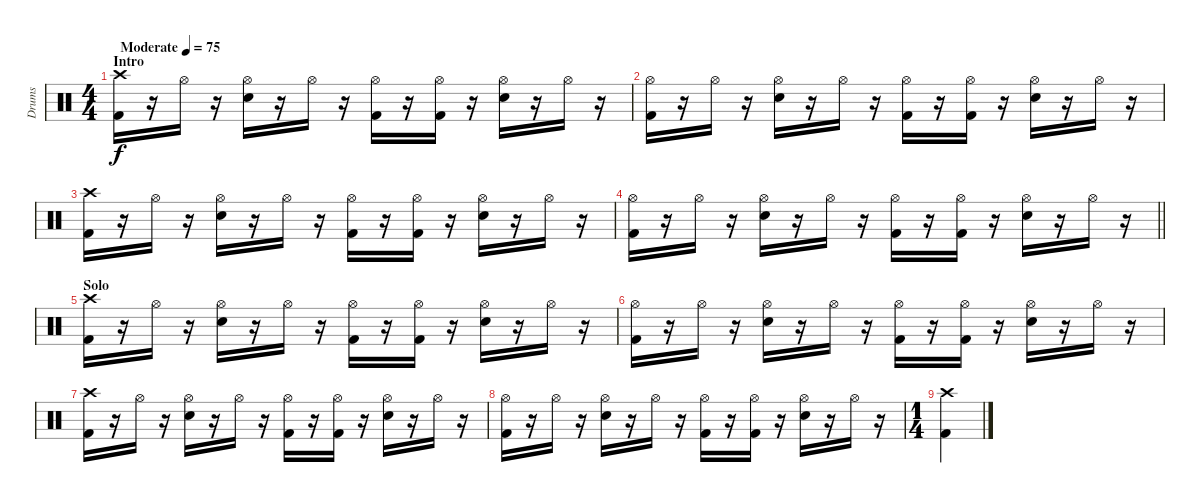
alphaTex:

\track ("Drums" "Drums") {instrument percussion}
\staff {score}
\articulation defaults
\ts (4 4)
\section ("" "Intro")
\tempo (75 "Moderate")
\clef neutral
\ks c
("Crash high (hit)" "Kick (hit) 2").16{dy f} r.16 "Hi-Hat (open)".16 r.16 ("Hi-Hat (open)" "Electric Snare (hit)").16 r.16 "Hi-Hat (open)".16 r.16 ("Hi-Hat (open)" "Kick (hit) 2").16 r.16 ("Hi-Hat (open)" "Kick (hit) 2").16 r.16 ("Hi-Hat (open)" "Electric Snare (hit)").16 r.16 "Hi-Hat (open)".16 r.16 |
("Hi-Hat (open)" "Kick (hit) 2").16 r.16 "Hi-Hat (open)".16 r.16 ("Hi-Hat (open)" "Electric Snare (hit)").16 r.16 "Hi-Hat (open)".16 r.16 ("Hi-Hat (open)" "Kick (hit) 2").16 r.16 ("Hi-Hat (open)" "Kick (hit) 2").16 r.16 ("Hi-Hat (open)" "Electric Snare (hit)").16 r.16 "Hi-Hat (open)".16 r.16 |
("Crash high (hit)" "Kick (hit) 2").16 r.16 "Hi-Hat (open)".16 r.16 ("Hi-Hat (open)" "Electric Snare (hit)").16 r.16 "Hi-Hat (open)".16 r.16 ("Hi-Hat (open)" "Kick (hit) 2").16 r.16 ("Hi-Hat (open)" "Kick (hit) 2").16 r.16 ("Hi-Hat (open)" "Electric Snare (hit)").16 r.16 "Hi-Hat (open)".16 r.16 |
\barLineRight lightlight
("Hi-Hat (open)" "Kick (hit) 2").16 r.16 "Hi-Hat (open)".16 r.16 ("Hi-Hat (open)" "Electric Snare (hit)").16 r.16 "Hi-Hat (open)".16 r.16 ("Hi-Hat (open)" "Kick (hit) 2").16 r.16 ("Hi-Hat (open)" "Kick (hit) 2").16 r.16 ("Hi-Hat (open)" "Electric Snare (hit)").16 r.16 "Hi-Hat (open)".16 r.16 |
\section ("" "Solo")
("Crash high (hit)" "Kick (hit) 2").16 r.16 "Hi-Hat (open)".16 r.16 ("Hi-Hat (open)" "Electric Snare (hit)").16 r.16 "Hi-Hat (open)".16 r.16 ("Hi-Hat (open)" "Kick (hit) 2").16 r.16 ("Hi-Hat (open)" "Kick (hit) 2").16 r.16 ("Hi-Hat (open)" "Electric Snare (hit)").16 r.16 "Hi-Hat (open)".16 r.16 |
("Hi-Hat (open)" "Kick (hit) 2").16 r.16 "Hi-Hat (open)".16 r.16 ("Hi-Hat (open)" "Electric Snare (hit)").16 r.16 "Hi-Hat (open)".16 r.16 ("Hi-Hat (open)" "Kick (hit) 2").16 r.16 ("Hi-Hat (open)" "Kick (hit) 2").16 r.16 ("Hi-Hat (open)" "Electric Snare (hit)").16 r.16 "Hi-Hat (open)".16 r.16 |
("Crash high (hit)" "Kick (hit) 2").16 r.16 "Hi-Hat (open)".16 r.16 ("Hi-Hat (open)" "Electric Snare (hit)").16 r.16 "Hi-Hat (open)".16 r.16 ("Hi-Hat (open)" "Kick (hit) 2").16 r.16 ("Hi-Hat (open)" "Kick (hit) 2").16 r.16 ("Hi-Hat (open)" "Electric Snare (hit)").16 r.16 "Hi-Hat (open)".16 r.16 |
("Hi-Hat (open)" "Kick (hit) 2").16 r.16 "Hi-Hat (open)".16 r.16 ("Hi-Hat (open)" "Electric Snare (hit)").16 r.16 "Hi-Hat (open)".16 r.16 ("Hi-Hat (open)" "Kick (hit) 2").16 r.16 ("Hi-Hat (open)" "Kick (hit) 2").16 r.16 ("Hi-Hat (open)" "Electric Snare (hit)").16 r.16 "Hi-Hat (open)".16 r.16 |
\ts (1 4)
("Crash high (hit)" "Kick (hit) 2").4
